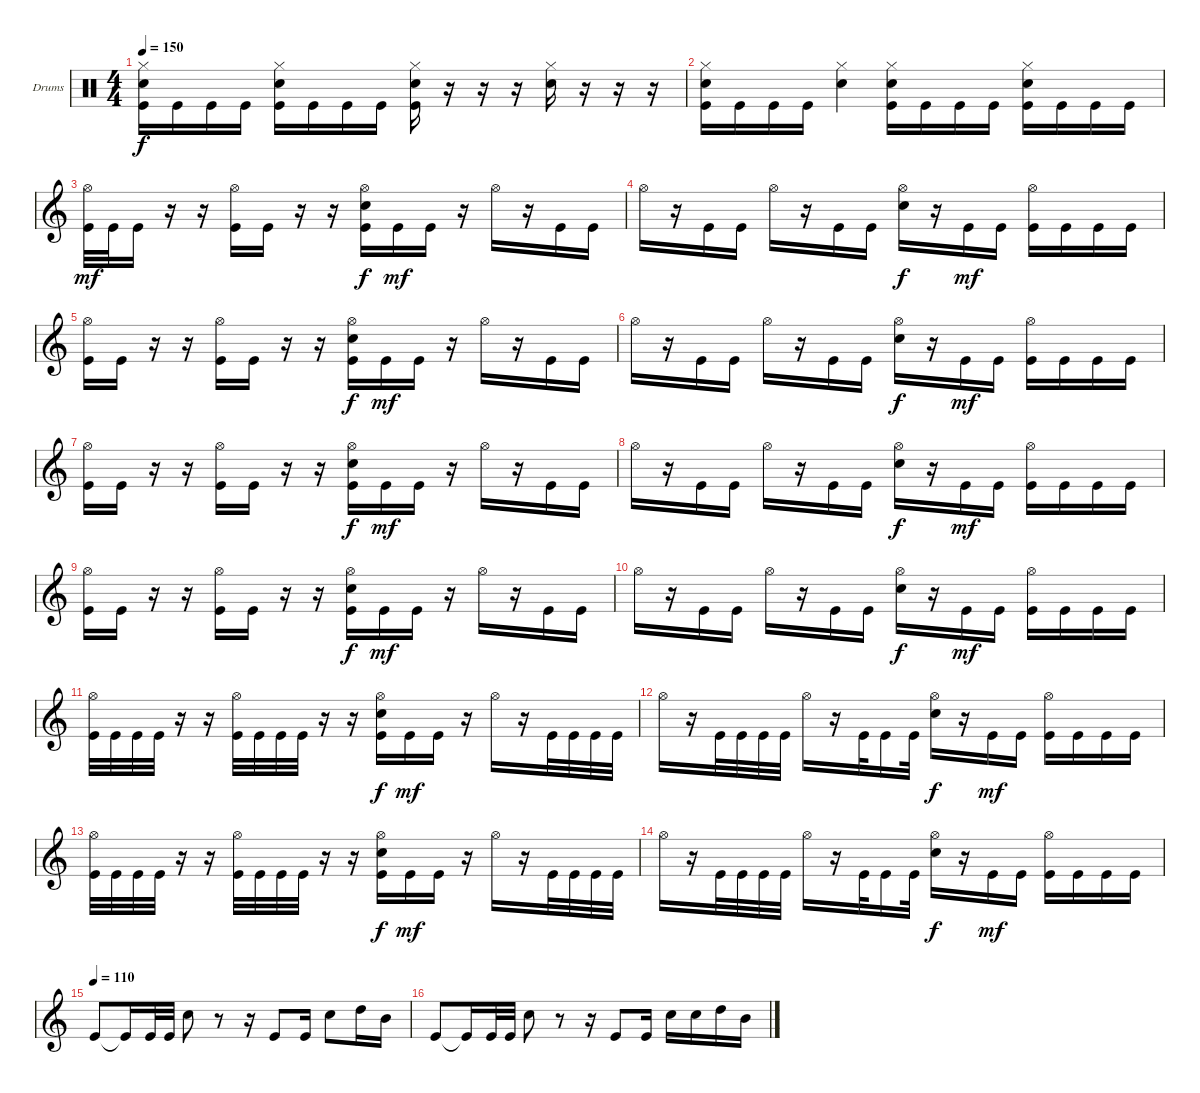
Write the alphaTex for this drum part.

\defaultSystemsLayout 4
\bracketExtendMode groupsimilarinstruments
\firstSystemTrackNameOrientation horizontal
\otherSystemsTrackNameOrientation horizontal
\track ("Drumkit" "Drums") {instrument percussion}
\staff {score}
\articulation defaults
\ts (4 4)
\tempo 150
\clef neutral
\ks c
("Kick (hit)" "Snare (hit) 2" "Hi-Hat (closed)").16{dy f} "Kick (hit)".16 "Kick (hit)".16 "Kick (hit)".16 ("Kick (hit)" "Snare (hit) 2" "Hi-Hat (closed)").16 "Kick (hit)".16 "Kick (hit)".16 "Kick (hit)".16 ("Kick (hit)" "Snare (hit) 2" "Hi-Hat (closed)").16 r.16 r.16 r.16 ("Snare (hit) 2" "Hi-Hat (closed)").16 r.16 r.16 r.16 |
("Kick (hit)" "Snare (hit) 2" "Hi-Hat (closed)").16 "Kick (hit)".16 "Kick (hit)".16 "Kick (hit)".16 ("Snare (hit) 2" "Hi-Hat (closed)").4 ("Kick (hit)" "Snare (hit) 2" "Hi-Hat (closed)").16 "Kick (hit)".16 "Kick (hit)".16 "Kick (hit)".16 ("Kick (hit)" "Snare (hit) 2" "Hi-Hat (closed)").16 "Kick (hit)".16 "Kick (hit)".16 "Kick (hit)".16 |
\clef g2
("Kick (hit)" "Hi-Hat (open)").32{dy mf} "Kick (hit)".32 "Kick (hit)".16 r.16 r.16 ("Kick (hit)" "Hi-Hat (open)").16 "Kick (hit)".16 r.16 r.16 ("Kick (hit)" "Snare (hit) 2" "Hi-Hat (open)").16{dy f} "Kick (hit)".16{dy mf} "Kick (hit)".16 r.16 "Hi-Hat (open)".16 r.16 "Kick (hit)".16 "Kick (hit)".16 |
"Hi-Hat (open)".16 r.16 "Kick (hit)".16 "Kick (hit)".16 "Hi-Hat (open)".16 r.16 "Kick (hit)".16 "Kick (hit)".16 ("Snare (hit) 2" "Hi-Hat (open)").16{dy f} r.16 "Kick (hit)".16{dy mf} "Kick (hit)".16 ("Kick (hit)" "Hi-Hat (open)").16 "Kick (hit)".16 "Kick (hit)".16 "Kick (hit)".16 |
("Kick (hit)" "Hi-Hat (open)").16 "Kick (hit)".16 r.16 r.16 ("Kick (hit)" "Hi-Hat (open)").16 "Kick (hit)".16 r.16 r.16 ("Kick (hit)" "Snare (hit) 2" "Hi-Hat (open)").16{dy f} "Kick (hit)".16{dy mf} "Kick (hit)".16 r.16 "Hi-Hat (open)".16 r.16 "Kick (hit)".16 "Kick (hit)".16 |
"Hi-Hat (open)".16 r.16 "Kick (hit)".16 "Kick (hit)".16 "Hi-Hat (open)".16 r.16 "Kick (hit)".16 "Kick (hit)".16 ("Snare (hit) 2" "Hi-Hat (open)").16{dy f} r.16 "Kick (hit)".16{dy mf} "Kick (hit)".16 ("Kick (hit)" "Hi-Hat (open)").16 "Kick (hit)".16 "Kick (hit)".16 "Kick (hit)".16 |
("Kick (hit)" "Hi-Hat (open)").16 "Kick (hit)".16 r.16 r.16 ("Kick (hit)" "Hi-Hat (open)").16 "Kick (hit)".16 r.16 r.16 ("Kick (hit)" "Snare (hit) 2" "Hi-Hat (open)").16{dy f} "Kick (hit)".16{dy mf} "Kick (hit)".16 r.16 "Hi-Hat (open)".16 r.16 "Kick (hit)".16 "Kick (hit)".16 |
"Hi-Hat (open)".16 r.16 "Kick (hit)".16 "Kick (hit)".16 "Hi-Hat (open)".16 r.16 "Kick (hit)".16 "Kick (hit)".16 ("Snare (hit) 2" "Hi-Hat (open)").16{dy f} r.16 "Kick (hit)".16{dy mf} "Kick (hit)".16 ("Kick (hit)" "Hi-Hat (open)").16 "Kick (hit)".16 "Kick (hit)".16 "Kick (hit)".16 |
("Kick (hit)" "Hi-Hat (open)").16 "Kick (hit)".16 r.16 r.16 ("Kick (hit)" "Hi-Hat (open)").16 "Kick (hit)".16 r.16 r.16 ("Kick (hit)" "Snare (hit) 2" "Hi-Hat (open)").16{dy f} "Kick (hit)".16{dy mf} "Kick (hit)".16 r.16 "Hi-Hat (open)".16 r.16 "Kick (hit)".16 "Kick (hit)".16 |
"Hi-Hat (open)".16 r.16 "Kick (hit)".16 "Kick (hit)".16 "Hi-Hat (open)".16 r.16 "Kick (hit)".16 "Kick (hit)".16 ("Snare (hit) 2" "Hi-Hat (open)").16{dy f} r.16 "Kick (hit)".16{dy mf} "Kick (hit)".16 ("Kick (hit)" "Hi-Hat (open)").16 "Kick (hit)".16 "Kick (hit)".16 "Kick (hit)".16 |
("Kick (hit)" "Hi-Hat (open)").32 "Kick (hit)".32 "Kick (hit)".32 "Kick (hit)".32 r.16 r.16 ("Kick (hit)" "Hi-Hat (open)").32 "Kick (hit)".32 "Kick (hit)".32 "Kick (hit)".32 r.16 r.16 ("Kick (hit)" "Snare (hit) 2" "Hi-Hat (open)").16{dy f} "Kick (hit)".16{dy mf} "Kick (hit)".16 r.16 "Hi-Hat (open)".16 r.16 "Kick (hit)".32 "Kick (hit)".32 "Kick (hit)".32 "Kick (hit)".32 |
"Hi-Hat (open)".16 r.16 "Kick (hit)".32 "Kick (hit)".32 "Kick (hit)".32 "Kick (hit)".32 "Hi-Hat (open)".16 r.16 "Kick (hit)".32 "Kick (hit)".16 "Kick (hit)".32 ("Snare (hit) 2" "Hi-Hat (open)").16{dy f} r.16 "Kick (hit)".16{dy mf} "Kick (hit)".16 ("Kick (hit)" "Hi-Hat (open)").16 "Kick (hit)".16 "Kick (hit)".16 "Kick (hit)".16 |
("Kick (hit)" "Hi-Hat (open)").32 "Kick (hit)".32 "Kick (hit)".32 "Kick (hit)".32 r.16 r.16 ("Kick (hit)" "Hi-Hat (open)").32 "Kick (hit)".32 "Kick (hit)".32 "Kick (hit)".32 r.16 r.16 ("Kick (hit)" "Snare (hit) 2" "Hi-Hat (open)").16{dy f} "Kick (hit)".16{dy mf} "Kick (hit)".16 r.16 "Hi-Hat (open)".16 r.16 "Kick (hit)".32 "Kick (hit)".32 "Kick (hit)".32 "Kick (hit)".32 |
"Hi-Hat (open)".16 r.16 "Kick (hit)".32 "Kick (hit)".32 "Kick (hit)".32 "Kick (hit)".32 "Hi-Hat (open)".16 r.16 "Kick (hit)".32 "Kick (hit)".16 "Kick (hit)".32 ("Snare (hit) 2" "Hi-Hat (open)").16{dy f} r.16 "Kick (hit)".16{dy mf} "Kick (hit)".16 ("Kick (hit)" "Hi-Hat (open)").16 "Kick (hit)".16 "Kick (hit)".16 "Kick (hit)".16 |
\tempo (110)
"Kick (hit)".8 "Kick (hit)"{t}.16 "Kick (hit)".32 "Kick (hit)".32 "Snare (hit) 2".8 r.8 r.16 "Kick (hit)".8 "Kick (hit)".16 "Snare (hit) 2".8 "High Tom (hit)".16 "Mid Tom (hit)".16 |
"Kick (hit)".8 "Kick (hit)"{t}.16 "Kick (hit)".32 "Kick (hit)".32 "Snare (hit) 2".8 r.8 r.16 "Kick (hit)".8 "Kick (hit)".16 "Snare (hit) 2".16 "Snare (hit) 2".16 "High Tom (hit)".16 "Mid Tom (hit)".16
